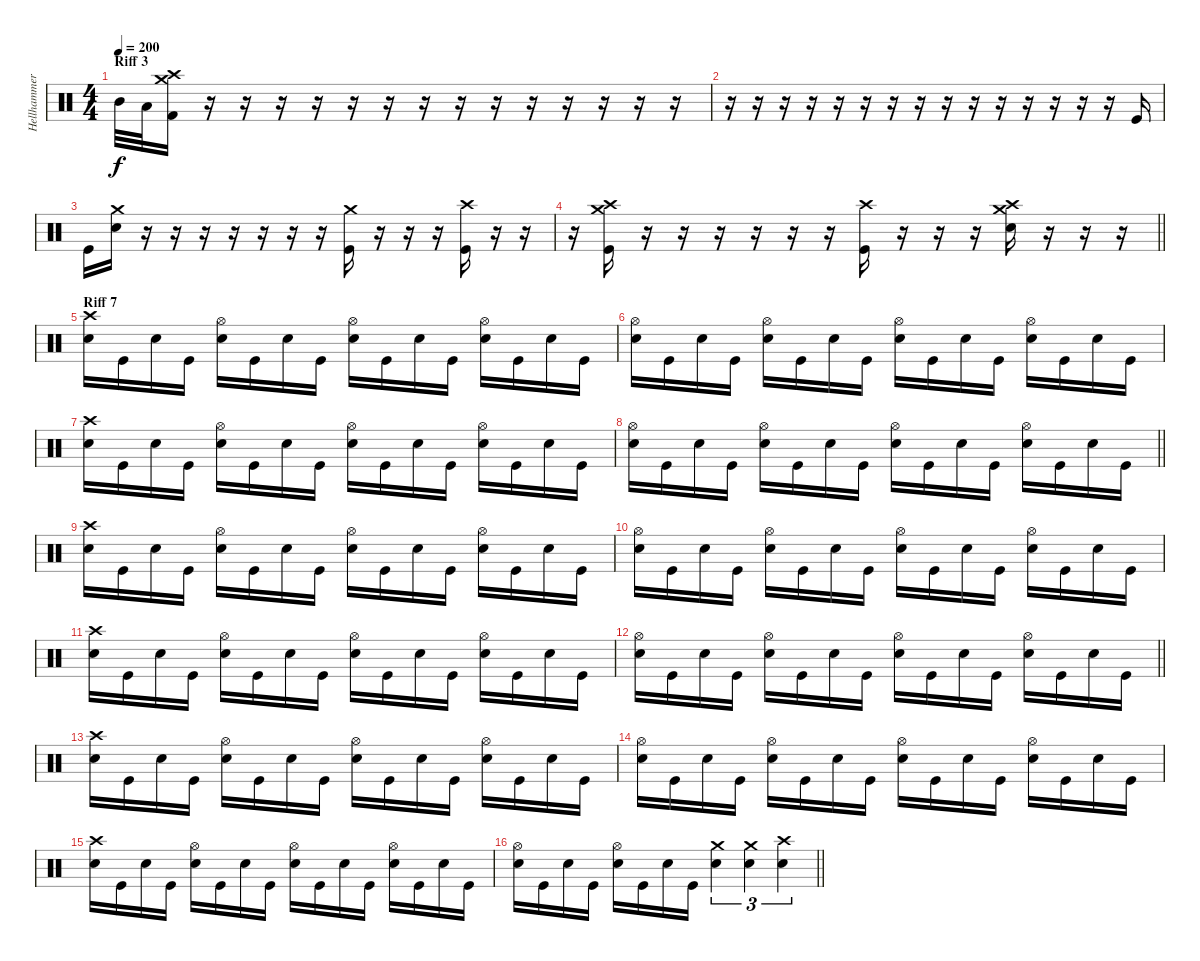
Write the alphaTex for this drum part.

\track ("Hellhammer" "Hellhammer") {instrument percussion}
\staff {score}
\articulation defaults
\ts (4 4)
\section ("" "Riff 3")
\tempo 200
\clef neutral
\ks c "Mid Tom (hit)".32{dy f} "Low Tom (hit)".32
("Crash high (hit)" "Crash medium (hit)" "Kick (hit) 2").16 r.16 r.16 r.16 r.16 r.16 r.16 r.16 r.16 r.16 r.16 r.16 r.16 r.16 r.16 |
r.16 r.16 r.16 r.16 r.16 r.16 r.16 r.16 r.16 r.16 r.16 r.16 r.16 r.16 r.16 "Kick (hit)".16 |
"Kick (hit)".16 ("Crash medium (hit)" "Electric Snare (hit)").16 r.16 r.16 r.16 r.16 r.16 r.16 r.16 ("Crash medium (hit)" "Kick (hit)").16 r.16 r.16 r.16 ("Crash high (hit)" "Kick (hit)").16 r.16 r.16 |
\barLineRight lightlight
r.16 ("Crash medium (hit)" "Crash high (hit)" "Kick (hit)").16 r.16 r.16 r.16 r.16 r.16 r.16 ("Crash high (hit)" "Kick (hit)").16 r.16 r.16 r.16 ("Crash medium (hit)" "Crash high (hit)" "Hand Clap (hit)").16 r.16 r.16 r.16 |
\section ("" "Riff 7")
("Crash high (hit)" "Snare (hit) 2").16 "Kick (hit)".16 "Snare (hit) 2".16 "Kick (hit)".16 ("Hi-Hat (open)" "Snare (hit) 2").16 "Kick (hit)".16 "Snare (hit) 2".16 "Kick (hit)".16 ("Hi-Hat (open)" "Snare (hit) 2").16 "Kick (hit)".16 "Snare (hit) 2".16 "Kick (hit)".16 ("Hi-Hat (open)" "Snare (hit) 2").16 "Kick (hit)".16 "Snare (hit) 2".16 "Kick (hit)".16 |
("Hi-Hat (open)" "Snare (hit) 2").16 "Kick (hit)".16 "Snare (hit) 2".16 "Kick (hit)".16 ("Hi-Hat (open)" "Snare (hit) 2").16 "Kick (hit)".16 "Snare (hit) 2".16 "Kick (hit)".16 ("Hi-Hat (open)" "Snare (hit) 2").16 "Kick (hit)".16 "Snare (hit) 2".16 "Kick (hit)".16 ("Hi-Hat (open)" "Snare (hit) 2").16 "Kick (hit)".16 "Snare (hit) 2".16 "Kick (hit)".16 |
("Crash high (hit)" "Snare (hit) 2").16 "Kick (hit)".16 "Snare (hit) 2".16 "Kick (hit)".16 ("Hi-Hat (open)" "Snare (hit) 2").16 "Kick (hit)".16 "Snare (hit) 2".16 "Kick (hit)".16 ("Hi-Hat (open)" "Snare (hit) 2").16 "Kick (hit)".16 "Snare (hit) 2".16 "Kick (hit)".16 ("Hi-Hat (open)" "Snare (hit) 2").16 "Kick (hit)".16 "Snare (hit) 2".16 "Kick (hit)".16 |
\barLineRight lightlight
("Hi-Hat (open)" "Snare (hit) 2").16 "Kick (hit)".16 "Snare (hit) 2".16 "Kick (hit)".16 ("Hi-Hat (open)" "Snare (hit) 2").16 "Kick (hit)".16 "Snare (hit) 2".16 "Kick (hit)".16 ("Hi-Hat (open)" "Snare (hit) 2").16 "Kick (hit)".16 "Snare (hit) 2".16 "Kick (hit)".16 ("Hi-Hat (open)" "Snare (hit) 2").16 "Kick (hit)".16 "Snare (hit) 2".16 "Kick (hit)".16 |
("Crash high (hit)" "Snare (hit) 2").16 "Kick (hit)".16 "Snare (hit) 2".16 "Kick (hit)".16 ("Hi-Hat (open)" "Snare (hit) 2").16 "Kick (hit)".16 "Snare (hit) 2".16 "Kick (hit)".16 ("Hi-Hat (open)" "Snare (hit) 2").16 "Kick (hit)".16 "Snare (hit) 2".16 "Kick (hit)".16 ("Hi-Hat (open)" "Snare (hit) 2").16 "Kick (hit)".16 "Snare (hit) 2".16 "Kick (hit)".16 |
("Hi-Hat (open)" "Snare (hit) 2").16 "Kick (hit)".16 "Snare (hit) 2".16 "Kick (hit)".16 ("Hi-Hat (open)" "Snare (hit) 2").16 "Kick (hit)".16 "Snare (hit) 2".16 "Kick (hit)".16 ("Hi-Hat (open)" "Snare (hit) 2").16 "Kick (hit)".16 "Snare (hit) 2".16 "Kick (hit)".16 ("Hi-Hat (open)" "Snare (hit) 2").16 "Kick (hit)".16 "Snare (hit) 2".16 "Kick (hit)".16 |
("Crash high (hit)" "Snare (hit) 2").16 "Kick (hit)".16 "Snare (hit) 2".16 "Kick (hit)".16 ("Hi-Hat (open)" "Snare (hit) 2").16 "Kick (hit)".16 "Snare (hit) 2".16 "Kick (hit)".16 ("Hi-Hat (open)" "Snare (hit) 2").16 "Kick (hit)".16 "Snare (hit) 2".16 "Kick (hit)".16 ("Hi-Hat (open)" "Snare (hit) 2").16 "Kick (hit)".16 "Snare (hit) 2".16 "Kick (hit)".16 |
\barLineRight lightlight
("Hi-Hat (open)" "Snare (hit) 2").16 "Kick (hit)".16 "Snare (hit) 2".16 "Kick (hit)".16 ("Hi-Hat (open)" "Snare (hit) 2").16 "Kick (hit)".16 "Snare (hit) 2".16 "Kick (hit)".16 ("Hi-Hat (open)" "Snare (hit) 2").16 "Kick (hit)".16 "Snare (hit) 2".16 "Kick (hit)".16 ("Hi-Hat (open)" "Snare (hit) 2").16 "Kick (hit)".16 "Snare (hit) 2".16 "Kick (hit)".16 |
("Crash high (hit)" "Snare (hit) 2").16 "Kick (hit)".16 "Snare (hit) 2".16 "Kick (hit)".16 ("Hi-Hat (open)" "Snare (hit) 2").16 "Kick (hit)".16 "Snare (hit) 2".16 "Kick (hit)".16 ("Hi-Hat (open)" "Snare (hit) 2").16 "Kick (hit)".16 "Snare (hit) 2".16 "Kick (hit)".16 ("Hi-Hat (open)" "Snare (hit) 2").16 "Kick (hit)".16 "Snare (hit) 2".16 "Kick (hit)".16 |
("Hi-Hat (open)" "Snare (hit) 2").16 "Kick (hit)".16 "Snare (hit) 2".16 "Kick (hit)".16 ("Hi-Hat (open)" "Snare (hit) 2").16 "Kick (hit)".16 "Snare (hit) 2".16 "Kick (hit)".16 ("Hi-Hat (open)" "Snare (hit) 2").16 "Kick (hit)".16 "Snare (hit) 2".16 "Kick (hit)".16 ("Hi-Hat (open)" "Snare (hit) 2").16 "Kick (hit)".16 "Snare (hit) 2".16 "Kick (hit)".16 |
("Crash high (hit)" "Snare (hit) 2").16 "Kick (hit)".16 "Snare (hit) 2".16 "Kick (hit)".16 ("Hi-Hat (open)" "Snare (hit) 2").16 "Kick (hit)".16 "Snare (hit) 2".16 "Kick (hit)".16 ("Hi-Hat (open)" "Snare (hit) 2").16 "Kick (hit)".16 "Snare (hit) 2".16 "Kick (hit)".16 ("Hi-Hat (open)" "Snare (hit) 2").16 "Kick (hit)".16 "Snare (hit) 2".16 "Kick (hit)".16 |
\barLineRight lightlight
("Hi-Hat (open)" "Snare (hit) 2").16 "Kick (hit)".16 "Snare (hit) 2".16 "Kick (hit)".16 ("Hi-Hat (open)" "Snare (hit) 2").16 "Kick (hit)".16 "Snare (hit) 2".16 "Kick (hit)".16 ("Crash medium (hit)" "Snare (hit) 2").4{tu (3 2)} ("Crash medium (hit)" "Snare (hit) 2").4{tu (3 2)} ("Crash high (hit)" "Snare (hit) 2").4{tu (3 2)}
